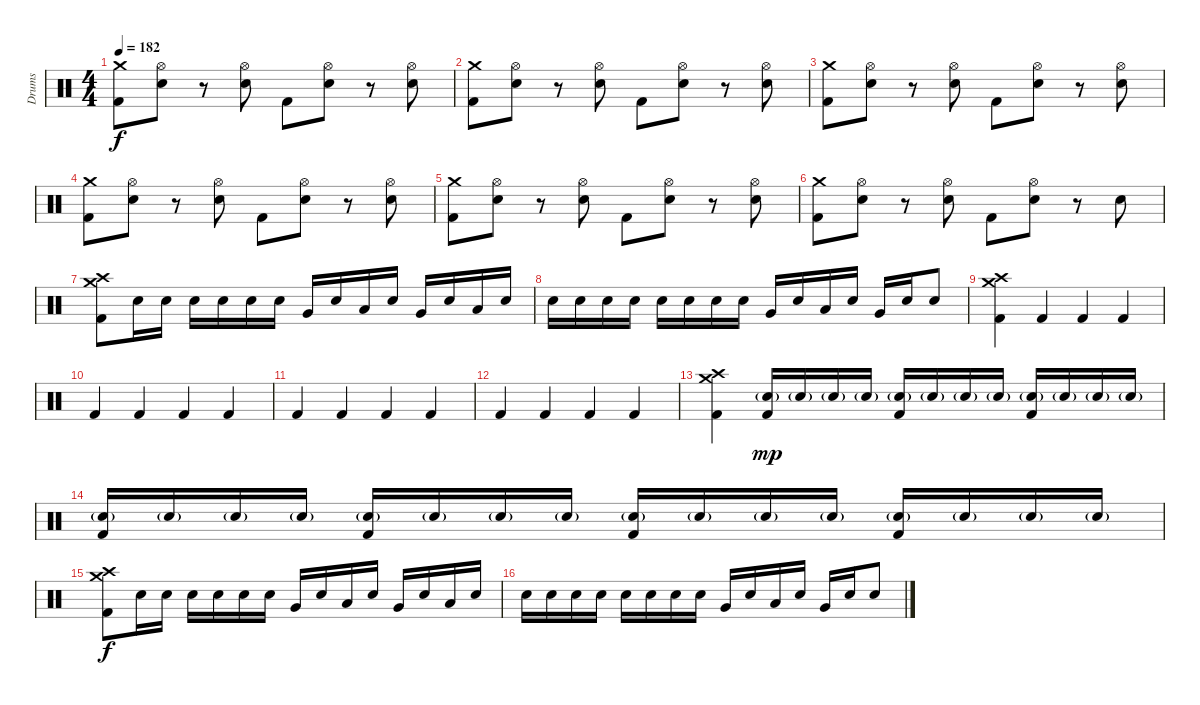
\track ("Drums" "Drums") {instrument percussion}
\staff
\articulation defaults
\ts (4 4)
\tempo 182
\clef neutral
\ks c
("Crash medium (hit)" "Kick (hit) 2").8{dy f} ("Hi-Hat (open)" "Electric Snare (hit)").8 r.8 ("Hi-Hat (open)" "Electric Snare (hit)").8 "Kick (hit) 2".8 ("Hi-Hat (open)" "Electric Snare (hit)").8 r.8 ("Hi-Hat (open)" "Electric Snare (hit)").8 |
("Crash medium (hit)" "Kick (hit) 2").8 ("Hi-Hat (open)" "Electric Snare (hit)").8 r.8 ("Hi-Hat (open)" "Electric Snare (hit)").8 "Kick (hit) 2".8 ("Hi-Hat (open)" "Electric Snare (hit)").8 r.8 ("Hi-Hat (open)" "Electric Snare (hit)").8 |
("Crash medium (hit)" "Kick (hit) 2").8 ("Hi-Hat (open)" "Electric Snare (hit)").8 r.8 ("Hi-Hat (open)" "Electric Snare (hit)").8 "Kick (hit) 2".8 ("Hi-Hat (open)" "Electric Snare (hit)").8 r.8 ("Hi-Hat (open)" "Electric Snare (hit)").8 |
("Crash medium (hit)" "Kick (hit) 2").8 ("Hi-Hat (open)" "Electric Snare (hit)").8 r.8 ("Hi-Hat (open)" "Electric Snare (hit)").8 "Kick (hit) 2".8 ("Hi-Hat (open)" "Electric Snare (hit)").8 r.8 ("Hi-Hat (open)" "Electric Snare (hit)").8 |
("Crash medium (hit)" "Kick (hit) 2").8 ("Hi-Hat (open)" "Electric Snare (hit)").8 r.8 ("Hi-Hat (open)" "Electric Snare (hit)").8 "Kick (hit) 2".8 ("Hi-Hat (open)" "Electric Snare (hit)").8 r.8 ("Hi-Hat (open)" "Electric Snare (hit)").8 |
("Crash medium (hit)" "Kick (hit) 2").8 ("Hi-Hat (open)" "Electric Snare (hit)").8 r.8 ("Hi-Hat (open)" "Electric Snare (hit)").8 "Kick (hit) 2".8 ("Hi-Hat (open)" "Electric Snare (hit)").8 r.8 "Electric Snare (hit)".8 |
("Crash medium (hit)" "Crash high (hit)" "Kick (hit) 2").8 "Electric Snare (hit)".16 "Electric Snare (hit)".16 "Electric Snare (hit)".16 "Electric Snare (hit)".16 "Electric Snare (hit)".16 "Electric Snare (hit)".16 "Very Low Tom (hit)".16 "Electric Snare (hit)".16 "Low Floor Tom (hit)".16 "Electric Snare (hit)".16 "Very Low Tom (hit)".16 "Electric Snare (hit)".16 "Low Floor Tom (hit)".16 "Electric Snare (hit)".16 |
"Electric Snare (hit)".16 "Electric Snare (hit)".16 "Electric Snare (hit)".16 "Electric Snare (hit)".16 "Electric Snare (hit)".16 "Electric Snare (hit)".16 "Electric Snare (hit)".16 "Electric Snare (hit)".16 "Very Low Tom (hit)".16 "Electric Snare (hit)".16 "Low Floor Tom (hit)".16 "Electric Snare (hit)".16 "Very Low Tom (hit)".16 "Electric Snare (hit)".16 "Electric Snare (hit)".8 |
("Crash medium (hit)" "Crash high (hit)" "Kick (hit) 2").4 "Kick (hit) 2".4 "Kick (hit) 2".4 "Kick (hit) 2".4 |
"Kick (hit) 2".4 "Kick (hit) 2".4 "Kick (hit) 2".4 "Kick (hit) 2".4 |
"Kick (hit) 2".4 "Kick (hit) 2".4 "Kick (hit) 2".4 "Kick (hit) 2".4 |
"Kick (hit) 2".4 "Kick (hit) 2".4 "Kick (hit) 2".4 "Kick (hit) 2".4 |
("Crash medium (hit)" "Crash high (hit)" "Kick (hit) 2").4 ("Electric Snare (hit)"{g} "Kick (hit) 2").16{dy mp} "Electric Snare (hit)"{g}.16 "Electric Snare (hit)"{g}.16 "Electric Snare (hit)"{g}.16 ("Electric Snare (hit)"{g} "Kick (hit) 2").16 "Electric Snare (hit)"{g}.16 "Electric Snare (hit)"{g}.16 "Electric Snare (hit)"{g}.16 ("Electric Snare (hit)"{g} "Kick (hit) 2").16 "Electric Snare (hit)"{g}.16 "Electric Snare (hit)"{g}.16 "Electric Snare (hit)"{g}.16 |
("Electric Snare (hit)"{g} "Kick (hit) 2").16 "Electric Snare (hit)"{g}.16 "Electric Snare (hit)"{g}.16 "Electric Snare (hit)"{g}.16 ("Electric Snare (hit)"{g} "Kick (hit) 2").16 "Electric Snare (hit)"{g}.16 "Electric Snare (hit)"{g}.16 "Electric Snare (hit)"{g}.16 ("Electric Snare (hit)"{g} "Kick (hit) 2").16 "Electric Snare (hit)"{g}.16 "Electric Snare (hit)"{g}.16 "Electric Snare (hit)"{g}.16 ("Electric Snare (hit)"{g} "Kick (hit) 2").16 "Electric Snare (hit)"{g}.16 "Electric Snare (hit)"{g}.16 "Electric Snare (hit)"{g}.16 |
("Crash medium (hit)" "Crash high (hit)" "Kick (hit) 2").8{dy f} "Electric Snare (hit)".16 "Electric Snare (hit)".16 "Electric Snare (hit)".16 "Electric Snare (hit)".16 "Electric Snare (hit)".16 "Electric Snare (hit)".16 "Very Low Tom (hit)".16 "Electric Snare (hit)".16 "Low Floor Tom (hit)".16 "Electric Snare (hit)".16 "Very Low Tom (hit)".16 "Electric Snare (hit)".16 "Low Floor Tom (hit)".16 "Electric Snare (hit)".16 |
"Electric Snare (hit)".16 "Electric Snare (hit)".16 "Electric Snare (hit)".16 "Electric Snare (hit)".16 "Electric Snare (hit)".16 "Electric Snare (hit)".16 "Electric Snare (hit)".16 "Electric Snare (hit)".16 "Very Low Tom (hit)".16 "Electric Snare (hit)".16 "Low Floor Tom (hit)".16 "Electric Snare (hit)".16 "Very Low Tom (hit)".16 "Electric Snare (hit)".16 "Electric Snare (hit)".8
